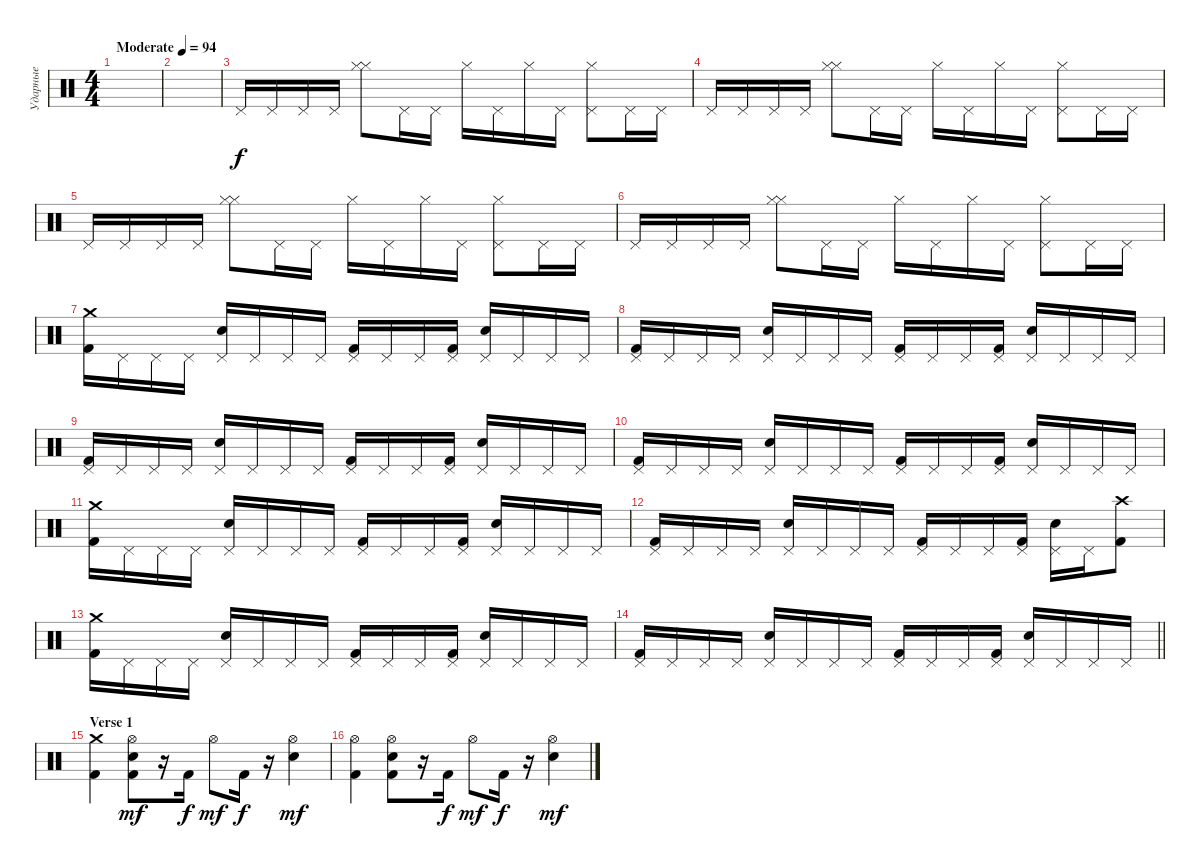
\track ("Ударные" "Ударные") {instrument percussion}
\staff {score}
\articulation defaults
\ts (4 4)
\tempo (94 "Moderate")
\clef neutral
\ks c
|
|
"Pedal Hi-Hat (hit)".16 "Pedal Hi-Hat (hit)".16 "Pedal Hi-Hat (hit)".16 "Pedal Hi-Hat (hit)".16 ("Hi-Hat (closed)" "Hi-Hat (closed)").8 "Pedal Hi-Hat (hit)".16 "Pedal Hi-Hat (hit)".16 "Hi-Hat (closed)".16 "Pedal Hi-Hat (hit)".16 "Hi-Hat (closed)".16 "Pedal Hi-Hat (hit)".16 ("Pedal Hi-Hat (hit)" "Hi-Hat (closed)").8 "Pedal Hi-Hat (hit)".16 "Pedal Hi-Hat (hit)".16 |
"Pedal Hi-Hat (hit)".16 "Pedal Hi-Hat (hit)".16 "Pedal Hi-Hat (hit)".16 "Pedal Hi-Hat (hit)".16 ("Hi-Hat (closed)" "Hi-Hat (closed)").8 "Pedal Hi-Hat (hit)".16 "Pedal Hi-Hat (hit)".16 "Hi-Hat (closed)".16 "Pedal Hi-Hat (hit)".16 "Hi-Hat (closed)".16 "Pedal Hi-Hat (hit)".16 ("Pedal Hi-Hat (hit)" "Hi-Hat (closed)").8 "Pedal Hi-Hat (hit)".16 "Pedal Hi-Hat (hit)".16 |
"Pedal Hi-Hat (hit)".16 "Pedal Hi-Hat (hit)".16 "Pedal Hi-Hat (hit)".16 "Pedal Hi-Hat (hit)".16 ("Hi-Hat (closed)" "Hi-Hat (closed)").8 "Pedal Hi-Hat (hit)".16 "Pedal Hi-Hat (hit)".16 "Hi-Hat (closed)".16 "Pedal Hi-Hat (hit)".16 "Hi-Hat (closed)".16 "Pedal Hi-Hat (hit)".16 ("Pedal Hi-Hat (hit)" "Hi-Hat (closed)").8 "Pedal Hi-Hat (hit)".16 "Pedal Hi-Hat (hit)".16 |
"Pedal Hi-Hat (hit)".16 "Pedal Hi-Hat (hit)".16 "Pedal Hi-Hat (hit)".16 "Pedal Hi-Hat (hit)".16 ("Hi-Hat (closed)" "Hi-Hat (closed)").8 "Pedal Hi-Hat (hit)".16 "Pedal Hi-Hat (hit)".16 "Hi-Hat (closed)".16 "Pedal Hi-Hat (hit)".16 "Hi-Hat (closed)".16 "Pedal Hi-Hat (hit)".16 ("Pedal Hi-Hat (hit)" "Hi-Hat (closed)").8 "Pedal Hi-Hat (hit)".16 "Pedal Hi-Hat (hit)".16 |
("Crash medium (hit)" "Kick (hit) 2").16 "Pedal Hi-Hat (hit)".16 "Pedal Hi-Hat (hit)".16 "Pedal Hi-Hat (hit)".16 ("Pedal Hi-Hat (hit)" "Snare (hit) 2").16 "Pedal Hi-Hat (hit)".16 "Pedal Hi-Hat (hit)".16 "Pedal Hi-Hat (hit)".16 ("Pedal Hi-Hat (hit)" "Kick (hit) 2").16 "Pedal Hi-Hat (hit)".16 "Pedal Hi-Hat (hit)".16 ("Pedal Hi-Hat (hit)" "Kick (hit) 2").16 ("Pedal Hi-Hat (hit)" "Snare (hit) 2").16 "Pedal Hi-Hat (hit)".16 "Pedal Hi-Hat (hit)".16 "Pedal Hi-Hat (hit)".16 |
("Pedal Hi-Hat (hit)" "Kick (hit) 2").16 "Pedal Hi-Hat (hit)".16 "Pedal Hi-Hat (hit)".16 "Pedal Hi-Hat (hit)".16 ("Pedal Hi-Hat (hit)" "Snare (hit) 2").16 "Pedal Hi-Hat (hit)".16 "Pedal Hi-Hat (hit)".16 "Pedal Hi-Hat (hit)".16 ("Pedal Hi-Hat (hit)" "Kick (hit) 2").16 "Pedal Hi-Hat (hit)".16 "Pedal Hi-Hat (hit)".16 ("Pedal Hi-Hat (hit)" "Kick (hit) 2").16 ("Pedal Hi-Hat (hit)" "Snare (hit) 2").16 "Pedal Hi-Hat (hit)".16 "Pedal Hi-Hat (hit)".16 "Pedal Hi-Hat (hit)".16 |
("Pedal Hi-Hat (hit)" "Kick (hit) 2").16 "Pedal Hi-Hat (hit)".16 "Pedal Hi-Hat (hit)".16 "Pedal Hi-Hat (hit)".16 ("Pedal Hi-Hat (hit)" "Snare (hit) 2").16 "Pedal Hi-Hat (hit)".16 "Pedal Hi-Hat (hit)".16 "Pedal Hi-Hat (hit)".16 ("Pedal Hi-Hat (hit)" "Kick (hit) 2").16 "Pedal Hi-Hat (hit)".16 "Pedal Hi-Hat (hit)".16 ("Pedal Hi-Hat (hit)" "Kick (hit) 2").16 ("Pedal Hi-Hat (hit)" "Snare (hit) 2").16 "Pedal Hi-Hat (hit)".16 "Pedal Hi-Hat (hit)".16 "Pedal Hi-Hat (hit)".16 |
("Pedal Hi-Hat (hit)" "Kick (hit) 2").16 "Pedal Hi-Hat (hit)".16 "Pedal Hi-Hat (hit)".16 "Pedal Hi-Hat (hit)".16 ("Pedal Hi-Hat (hit)" "Snare (hit) 2").16 "Pedal Hi-Hat (hit)".16 "Pedal Hi-Hat (hit)".16 "Pedal Hi-Hat (hit)".16 ("Pedal Hi-Hat (hit)" "Kick (hit) 2").16 "Pedal Hi-Hat (hit)".16 "Pedal Hi-Hat (hit)".16 ("Pedal Hi-Hat (hit)" "Kick (hit) 2").16 ("Pedal Hi-Hat (hit)" "Snare (hit) 2").16 "Pedal Hi-Hat (hit)".16 "Pedal Hi-Hat (hit)".16 "Pedal Hi-Hat (hit)".16 |
("Crash medium (hit)" "Kick (hit) 2").16 "Pedal Hi-Hat (hit)".16 "Pedal Hi-Hat (hit)".16 "Pedal Hi-Hat (hit)".16 ("Pedal Hi-Hat (hit)" "Snare (hit) 2").16 "Pedal Hi-Hat (hit)".16 "Pedal Hi-Hat (hit)".16 "Pedal Hi-Hat (hit)".16 ("Pedal Hi-Hat (hit)" "Kick (hit) 2").16 "Pedal Hi-Hat (hit)".16 "Pedal Hi-Hat (hit)".16 ("Pedal Hi-Hat (hit)" "Kick (hit) 2").16 ("Pedal Hi-Hat (hit)" "Snare (hit) 2").16 "Pedal Hi-Hat (hit)".16 "Pedal Hi-Hat (hit)".16 "Pedal Hi-Hat (hit)".16 |
("Pedal Hi-Hat (hit)" "Kick (hit) 2").16 "Pedal Hi-Hat (hit)".16 "Pedal Hi-Hat (hit)".16 "Pedal Hi-Hat (hit)".16 ("Pedal Hi-Hat (hit)" "Snare (hit) 2").16 "Pedal Hi-Hat (hit)".16 "Pedal Hi-Hat (hit)".16 "Pedal Hi-Hat (hit)".16 ("Pedal Hi-Hat (hit)" "Kick (hit) 2").16 "Pedal Hi-Hat (hit)".16 "Pedal Hi-Hat (hit)".16 ("Pedal Hi-Hat (hit)" "Kick (hit) 2").16 ("Pedal Hi-Hat (hit)" "Snare (hit) 2").16 "Pedal Hi-Hat (hit)".16 ("Crash high (hit)" "Kick (hit) 2").8 |
("Crash medium (hit)" "Kick (hit) 2").16 "Pedal Hi-Hat (hit)".16 "Pedal Hi-Hat (hit)".16 "Pedal Hi-Hat (hit)".16 ("Pedal Hi-Hat (hit)" "Snare (hit) 2").16 "Pedal Hi-Hat (hit)".16 "Pedal Hi-Hat (hit)".16 "Pedal Hi-Hat (hit)".16 ("Pedal Hi-Hat (hit)" "Kick (hit) 2").16 "Pedal Hi-Hat (hit)".16 "Pedal Hi-Hat (hit)".16 ("Pedal Hi-Hat (hit)" "Kick (hit) 2").16 ("Pedal Hi-Hat (hit)" "Snare (hit) 2").16 "Pedal Hi-Hat (hit)".16 "Pedal Hi-Hat (hit)".16 "Pedal Hi-Hat (hit)".16 |
\barLineRight lightlight
("Pedal Hi-Hat (hit)" "Kick (hit) 2").16 "Pedal Hi-Hat (hit)".16 "Pedal Hi-Hat (hit)".16 "Pedal Hi-Hat (hit)".16 ("Pedal Hi-Hat (hit)" "Snare (hit) 2").16 "Pedal Hi-Hat (hit)".16 "Pedal Hi-Hat (hit)".16 "Pedal Hi-Hat (hit)".16 ("Pedal Hi-Hat (hit)" "Kick (hit) 2").16 "Pedal Hi-Hat (hit)".16 "Pedal Hi-Hat (hit)".16 ("Pedal Hi-Hat (hit)" "Kick (hit) 2").16 ("Pedal Hi-Hat (hit)" "Snare (hit) 2").16 "Pedal Hi-Hat (hit)".16 "Pedal Hi-Hat (hit)".16 "Pedal Hi-Hat (hit)".16 |
\section ("" "Verse 1")
("Crash medium (hit)" "Kick (hit) 2").4 ("Hi-Hat (open)" "Snare (hit) 2" "Kick (hit) 2").8{dy mf} r.16 "Kick (hit) 2".16{dy f} "Hi-Hat (open)".8{dy mf} "Kick (hit) 2".16{dy f} r.16 ("Hi-Hat (open)" "Snare (hit) 2").4{dy mf} |
("Hi-Hat (open)" "Kick (hit) 2").4 ("Hi-Hat (open)" "Snare (hit) 2" "Kick (hit) 2").8 r.16 "Kick (hit) 2".16{dy f} "Hi-Hat (open)".8{dy mf} "Kick (hit) 2".16{dy f} r.16 ("Hi-Hat (open)" "Snare (hit) 2").4{dy mf}
